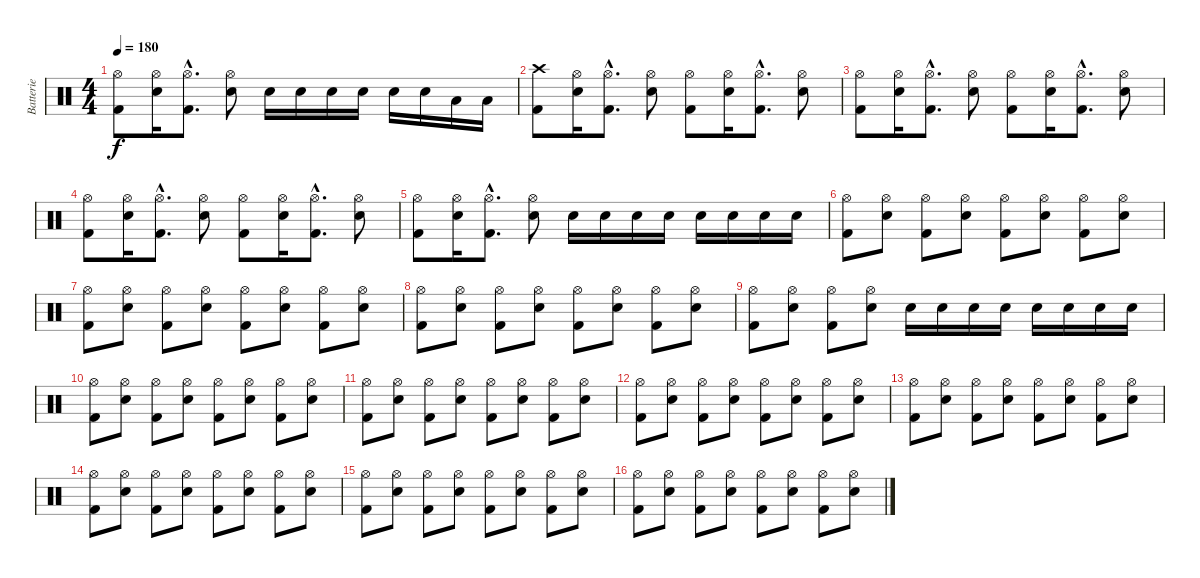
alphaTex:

\track ("Batterie" "Batterie") {instrument percussion}
\staff {score}
\articulation defaults
\ts (4 4)
\tempo 180
\clef neutral
\ks c
("Hi-Hat (open)" "Kick (hit) 2").8{dy f} ("Hi-Hat (open)" "Electric Snare (hit)").16 ("Hi-Hat (open)"{hac} "Kick (hit) 2"{hac}).8{d} ("Hi-Hat (open)" "Electric Snare (hit)").8 "Electric Snare (hit)".16 "Electric Snare (hit)".16 "Electric Snare (hit)".16 "Electric Snare (hit)".16 "Snare (hit) 2".16 "Snare (hit) 2".16 "Low Tom (hit)".16 "Low Tom (hit)".16 |
("Crash high (hit)" "Kick (hit) 2").8 ("Hi-Hat (open)" "Electric Snare (hit)").16 ("Hi-Hat (open)"{hac} "Kick (hit) 2"{hac}).8{d} ("Hi-Hat (open)" "Electric Snare (hit)").8 ("Hi-Hat (open)" "Kick (hit) 2").8 ("Hi-Hat (open)" "Electric Snare (hit)").16 ("Hi-Hat (open)"{hac} "Kick (hit) 2"{hac}).8{d} ("Hi-Hat (open)" "Electric Snare (hit)").8 |
("Hi-Hat (open)" "Kick (hit) 2").8 ("Hi-Hat (open)" "Electric Snare (hit)").16 ("Hi-Hat (open)"{hac} "Kick (hit) 2"{hac}).8{d} ("Hi-Hat (open)" "Electric Snare (hit)").8 ("Hi-Hat (open)" "Kick (hit) 2").8 ("Hi-Hat (open)" "Electric Snare (hit)").16 ("Hi-Hat (open)"{hac} "Kick (hit) 2"{hac}).8{d} ("Hi-Hat (open)" "Electric Snare (hit)").8 |
("Hi-Hat (open)" "Kick (hit) 2").8 ("Hi-Hat (open)" "Electric Snare (hit)").16 ("Hi-Hat (open)"{hac} "Kick (hit) 2"{hac}).8{d} ("Hi-Hat (open)" "Electric Snare (hit)").8 ("Hi-Hat (open)" "Kick (hit) 2").8 ("Hi-Hat (open)" "Electric Snare (hit)").16 ("Hi-Hat (open)"{hac} "Kick (hit) 2"{hac}).8{d} ("Hi-Hat (open)" "Electric Snare (hit)").8 |
("Hi-Hat (open)" "Kick (hit) 2").8 ("Hi-Hat (open)" "Electric Snare (hit)").16 ("Hi-Hat (open)"{hac} "Kick (hit) 2"{hac}).8{d} ("Hi-Hat (open)" "Electric Snare (hit)").8 "Electric Snare (hit)".16 "Electric Snare (hit)".16 "Electric Snare (hit)".16 "Electric Snare (hit)".16 "Electric Snare (hit)".16 "Electric Snare (hit)".16 "Electric Snare (hit)".16 "Electric Snare (hit)".16 |
("Hi-Hat (open)" "Kick (hit) 2").8 ("Hi-Hat (open)" "Electric Snare (hit)").8 ("Hi-Hat (open)" "Kick (hit) 2").8 ("Hi-Hat (open)" "Electric Snare (hit)").8 ("Hi-Hat (open)" "Kick (hit) 2").8 ("Hi-Hat (open)" "Electric Snare (hit)").8 ("Hi-Hat (open)" "Kick (hit) 2").8 ("Hi-Hat (open)" "Electric Snare (hit)").8 |
("Hi-Hat (open)" "Kick (hit) 2").8 ("Hi-Hat (open)" "Electric Snare (hit)").8 ("Hi-Hat (open)" "Kick (hit) 2").8 ("Hi-Hat (open)" "Electric Snare (hit)").8 ("Hi-Hat (open)" "Kick (hit) 2").8 ("Hi-Hat (open)" "Electric Snare (hit)").8 ("Hi-Hat (open)" "Kick (hit) 2").8 ("Hi-Hat (open)" "Electric Snare (hit)").8 |
("Hi-Hat (open)" "Kick (hit) 2").8 ("Hi-Hat (open)" "Electric Snare (hit)").8 ("Hi-Hat (open)" "Kick (hit) 2").8 ("Hi-Hat (open)" "Electric Snare (hit)").8 ("Hi-Hat (open)" "Kick (hit) 2").8 ("Hi-Hat (open)" "Electric Snare (hit)").8 ("Hi-Hat (open)" "Kick (hit) 2").8 ("Hi-Hat (open)" "Electric Snare (hit)").8 |
("Hi-Hat (open)" "Kick (hit) 2").8 ("Hi-Hat (open)" "Electric Snare (hit)").8 ("Hi-Hat (open)" "Kick (hit) 2").8 ("Hi-Hat (open)" "Electric Snare (hit)").8 "Electric Snare (hit)".16 "Electric Snare (hit)".16 "Electric Snare (hit)".16 "Electric Snare (hit)".16 "Electric Snare (hit)".16 "Electric Snare (hit)".16 "Electric Snare (hit)".16 "Electric Snare (hit)".16 |
("Hi-Hat (open)" "Kick (hit) 2").8 ("Hi-Hat (open)" "Electric Snare (hit)").8 ("Hi-Hat (open)" "Kick (hit) 2").8 ("Hi-Hat (open)" "Electric Snare (hit)").8 ("Hi-Hat (open)" "Kick (hit) 2").8 ("Hi-Hat (open)" "Electric Snare (hit)").8 ("Hi-Hat (open)" "Kick (hit) 2").8 ("Hi-Hat (open)" "Electric Snare (hit)").8 |
("Hi-Hat (open)" "Kick (hit) 2").8 ("Hi-Hat (open)" "Electric Snare (hit)").8 ("Hi-Hat (open)" "Kick (hit) 2").8 ("Hi-Hat (open)" "Electric Snare (hit)").8 ("Hi-Hat (open)" "Kick (hit) 2").8 ("Hi-Hat (open)" "Electric Snare (hit)").8 ("Hi-Hat (open)" "Kick (hit) 2").8 ("Hi-Hat (open)" "Electric Snare (hit)").8 |
("Hi-Hat (open)" "Kick (hit) 2").8 ("Hi-Hat (open)" "Electric Snare (hit)").8 ("Hi-Hat (open)" "Kick (hit) 2").8 ("Hi-Hat (open)" "Electric Snare (hit)").8 ("Hi-Hat (open)" "Kick (hit) 2").8 ("Hi-Hat (open)" "Electric Snare (hit)").8 ("Hi-Hat (open)" "Kick (hit) 2").8 ("Hi-Hat (open)" "Electric Snare (hit)").8 |
("Hi-Hat (open)" "Kick (hit) 2").8 ("Hi-Hat (open)" "Electric Snare (hit)").8 ("Hi-Hat (open)" "Kick (hit) 2").8 ("Hi-Hat (open)" "Electric Snare (hit)").8 ("Hi-Hat (open)" "Kick (hit) 2").8 ("Hi-Hat (open)" "Electric Snare (hit)").8 ("Hi-Hat (open)" "Kick (hit) 2").8 ("Hi-Hat (open)" "Electric Snare (hit)").8 |
("Hi-Hat (open)" "Kick (hit) 2").8 ("Hi-Hat (open)" "Electric Snare (hit)").8 ("Hi-Hat (open)" "Kick (hit) 2").8 ("Hi-Hat (open)" "Electric Snare (hit)").8 ("Hi-Hat (open)" "Kick (hit) 2").8 ("Hi-Hat (open)" "Electric Snare (hit)").8 ("Hi-Hat (open)" "Kick (hit) 2").8 ("Hi-Hat (open)" "Electric Snare (hit)").8 |
("Hi-Hat (open)" "Kick (hit) 2").8 ("Hi-Hat (open)" "Electric Snare (hit)").8 ("Hi-Hat (open)" "Kick (hit) 2").8 ("Hi-Hat (open)" "Electric Snare (hit)").8 ("Hi-Hat (open)" "Kick (hit) 2").8 ("Hi-Hat (open)" "Electric Snare (hit)").8 ("Hi-Hat (open)" "Kick (hit) 2").8 ("Hi-Hat (open)" "Electric Snare (hit)").8 |
("Hi-Hat (open)" "Kick (hit) 2").8 ("Hi-Hat (open)" "Electric Snare (hit)").8 ("Hi-Hat (open)" "Kick (hit) 2").8 ("Hi-Hat (open)" "Electric Snare (hit)").8 ("Hi-Hat (open)" "Kick (hit) 2").8 ("Hi-Hat (open)" "Electric Snare (hit)").8 ("Hi-Hat (open)" "Kick (hit) 2").8 ("Hi-Hat (open)" "Electric Snare (hit)").8
